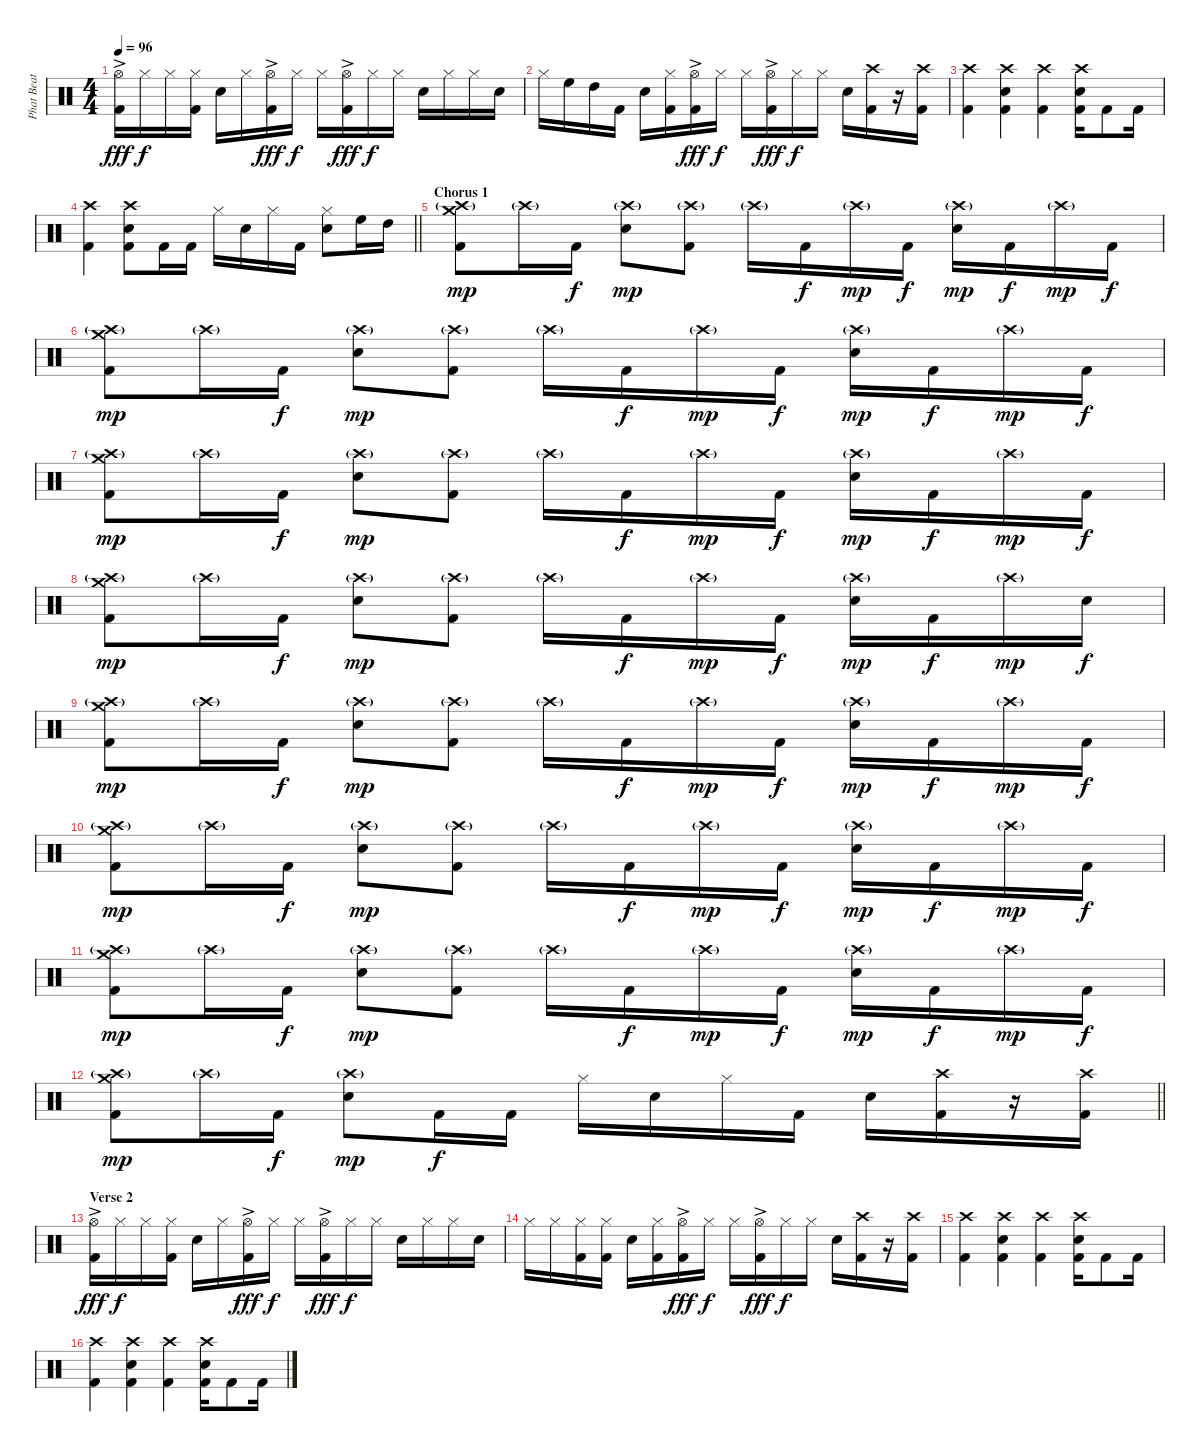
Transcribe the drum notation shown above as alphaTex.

\track ("Phat Beat" "Phat Beat") {instrument percussion}
\staff {score}
\articulation defaults
\ts (4 4)
\tempo 96
\clef neutral
\ks c
("Hi-Hat (open)"{ac} "Kick (hit) 2").16{dy fff} "Hi-Hat (closed)".16{dy f} "Hi-Hat (closed)".16 ("Hi-Hat (closed)" "Kick (hit) 2").16 "Snare (hit) 2".16 "Hi-Hat (closed)".16 ("Hi-Hat (open)"{ac} "Kick (hit) 2").16{dy fff} "Hi-Hat (closed)".16{dy f} "Hi-Hat (closed)".16 ("Hi-Hat (open)"{ac} "Kick (hit) 2").16{dy fff} "Hi-Hat (closed)".16{dy f} "Hi-Hat (closed)".16 "Snare (hit) 2".16 "Hi-Hat (closed)".16 "Hi-Hat (closed)".16 "Snare (hit) 2".16 |
"Hi-Hat (closed)".16 "High Floor Tom (hit)".16 "High Tom (hit)".16 "Kick (hit) 2".16 "Snare (hit) 2".16 ("Hi-Hat (closed)" "Kick (hit) 2").16 ("Hi-Hat (open)"{ac} "Kick (hit) 2").16{dy fff} "Hi-Hat (closed)".16{dy f} "Hi-Hat (closed)".16 ("Hi-Hat (open)"{ac} "Kick (hit) 2").16{dy fff} "Hi-Hat (closed)".16{dy f} "Hi-Hat (closed)".16 "Snare (hit) 2".16 ("Crash high (hit)" "Kick (hit) 2").16 r.16 ("Crash high (hit)" "Kick (hit) 2").16 |
("Crash high (hit)" "Kick (hit) 2").4 ("Crash high (hit)" "Snare (hit) 2" "Kick (hit) 2").4 ("Crash high (hit)" "Kick (hit) 2").4 ("Crash high (hit)" "Snare (hit) 2" "Kick (hit) 2").16 "Kick (hit) 2".8 "Kick (hit) 2".16 |
\barLineRight lightlight
("Crash high (hit)" "Kick (hit) 2").4 ("Crash high (hit)" "Snare (hit) 2" "Kick (hit) 2").8 "Kick (hit) 2".16 "Kick (hit) 2".16 "Hi-Hat (closed)".16 "Snare (hit) 2".16 "Hi-Hat (closed)".16 "Kick (hit) 2".16 ("Hi-Hat (closed)" "Snare (hit) 2").8 "High Floor Tom (hit)".16 "High Tom (hit)".16 |
\section ("" "Chorus 1")
("Crash high (hit)"{g} "Crash medium (hit)" "Kick (hit) 2").8{dy mp} "Crash high (hit)"{g}.16 "Kick (hit) 2".16{dy f} ("Crash high (hit)"{g} "Snare (hit) 2").8{dy mp} ("Crash high (hit)"{g} "Kick (hit) 2").8 "Crash high (hit)"{g}.16 "Kick (hit) 2".16{dy f} "Crash high (hit)"{g}.16{dy mp} "Kick (hit) 2".16{dy f} ("Crash high (hit)"{g} "Snare (hit) 2").16{dy mp} "Kick (hit) 2".16{dy f} "Crash high (hit)"{g}.16{dy mp} "Kick (hit) 2".16{dy f} |
("Crash high (hit)"{g} "Crash medium (hit)" "Kick (hit) 2").8{dy mp} "Crash high (hit)"{g}.16 "Kick (hit) 2".16{dy f} ("Crash high (hit)"{g} "Snare (hit) 2").8{dy mp} ("Crash high (hit)"{g} "Kick (hit) 2").8 "Crash high (hit)"{g}.16 "Kick (hit) 2".16{dy f} "Crash high (hit)"{g}.16{dy mp} "Kick (hit) 2".16{dy f} ("Crash high (hit)"{g} "Snare (hit) 2").16{dy mp} "Kick (hit) 2".16{dy f} "Crash high (hit)"{g}.16{dy mp} "Kick (hit) 2".16{dy f} |
("Crash high (hit)"{g} "Crash medium (hit)" "Kick (hit) 2").8{dy mp} "Crash high (hit)"{g}.16 "Kick (hit) 2".16{dy f} ("Crash high (hit)"{g} "Snare (hit) 2").8{dy mp} ("Crash high (hit)"{g} "Kick (hit) 2").8 "Crash high (hit)"{g}.16 "Kick (hit) 2".16{dy f} "Crash high (hit)"{g}.16{dy mp} "Kick (hit) 2".16{dy f} ("Crash high (hit)"{g} "Snare (hit) 2").16{dy mp} "Kick (hit) 2".16{dy f} "Crash high (hit)"{g}.16{dy mp} "Kick (hit) 2".16{dy f} |
("Crash high (hit)"{g} "Crash medium (hit)" "Kick (hit) 2").8{dy mp} "Crash high (hit)"{g}.16 "Kick (hit) 2".16{dy f} ("Crash high (hit)"{g} "Snare (hit) 2").8{dy mp} ("Crash high (hit)"{g} "Kick (hit) 2").8 "Crash high (hit)"{g}.16 "Kick (hit) 2".16{dy f} "Crash high (hit)"{g}.16{dy mp} "Kick (hit) 2".16{dy f} ("Crash high (hit)"{g} "Snare (hit) 2").16{dy mp} "Kick (hit) 2".16{dy f} "Crash high (hit)"{g}.16{dy mp} "Snare (hit) 2".16{dy f} |
("Crash high (hit)"{g} "Crash medium (hit)" "Kick (hit) 2").8{dy mp} "Crash high (hit)"{g}.16 "Kick (hit) 2".16{dy f} ("Crash high (hit)"{g} "Snare (hit) 2").8{dy mp} ("Crash high (hit)"{g} "Kick (hit) 2").8 "Crash high (hit)"{g}.16 "Kick (hit) 2".16{dy f} "Crash high (hit)"{g}.16{dy mp} "Kick (hit) 2".16{dy f} ("Crash high (hit)"{g} "Snare (hit) 2").16{dy mp} "Kick (hit) 2".16{dy f} "Crash high (hit)"{g}.16{dy mp} "Kick (hit) 2".16{dy f} |
("Crash high (hit)"{g} "Crash medium (hit)" "Kick (hit) 2").8{dy mp} "Crash high (hit)"{g}.16 "Kick (hit) 2".16{dy f} ("Crash high (hit)"{g} "Snare (hit) 2").8{dy mp} ("Crash high (hit)"{g} "Kick (hit) 2").8 "Crash high (hit)"{g}.16 "Kick (hit) 2".16{dy f} "Crash high (hit)"{g}.16{dy mp} "Kick (hit) 2".16{dy f} ("Crash high (hit)"{g} "Snare (hit) 2").16{dy mp} "Kick (hit) 2".16{dy f} "Crash high (hit)"{g}.16{dy mp} "Kick (hit) 2".16{dy f} |
("Crash high (hit)"{g} "Crash medium (hit)" "Kick (hit) 2").8{dy mp} "Crash high (hit)"{g}.16 "Kick (hit) 2".16{dy f} ("Crash high (hit)"{g} "Snare (hit) 2").8{dy mp} ("Crash high (hit)"{g} "Kick (hit) 2").8 "Crash high (hit)"{g}.16 "Kick (hit) 2".16{dy f} "Crash high (hit)"{g}.16{dy mp} "Kick (hit) 2".16{dy f} ("Crash high (hit)"{g} "Snare (hit) 2").16{dy mp} "Kick (hit) 2".16{dy f} "Crash high (hit)"{g}.16{dy mp} "Kick (hit) 2".16{dy f} |
\barLineRight lightlight
("Crash high (hit)"{g} "Crash medium (hit)" "Kick (hit) 2").8{dy mp} "Crash high (hit)"{g}.16 "Kick (hit) 2".16{dy f} ("Crash high (hit)"{g} "Snare (hit) 2").8{dy mp} "Kick (hit) 2".16{dy f} "Kick (hit) 2".16 "Hi-Hat (closed)".16 "Snare (hit) 2".16 "Hi-Hat (closed)".16 "Kick (hit) 2".16 "Snare (hit) 2".16 ("Crash high (hit)" "Kick (hit) 2").16 r.16 ("Crash high (hit)" "Kick (hit) 2").16 |
\section ("" "Verse 2")
("Hi-Hat (open)"{ac} "Kick (hit) 2").16{dy fff} "Hi-Hat (closed)".16{dy f} "Hi-Hat (closed)".16 ("Hi-Hat (closed)" "Kick (hit) 2").16 "Snare (hit) 2".16 "Hi-Hat (closed)".16 ("Hi-Hat (open)"{ac} "Kick (hit) 2").16{dy fff} "Hi-Hat (closed)".16{dy f} "Hi-Hat (closed)".16 ("Hi-Hat (open)"{ac} "Kick (hit) 2").16{dy fff} "Hi-Hat (closed)".16{dy f} "Hi-Hat (closed)".16 "Snare (hit) 2".16 "Hi-Hat (closed)".16 "Hi-Hat (closed)".16 "Snare (hit) 2".16 |
"Hi-Hat (closed)".16 "Hi-Hat (closed)".16 ("Hi-Hat (closed)" "Kick (hit) 2").16 ("Hi-Hat (closed)" "Kick (hit) 2").16 "Snare (hit) 2".16 ("Hi-Hat (closed)" "Kick (hit) 2").16 ("Hi-Hat (open)"{ac} "Kick (hit) 2").16{dy fff} "Hi-Hat (closed)".16{dy f} "Hi-Hat (closed)".16 ("Hi-Hat (open)"{ac} "Kick (hit) 2").16{dy fff} "Hi-Hat (closed)".16{dy f} "Hi-Hat (closed)".16 "Snare (hit) 2".16 ("Crash high (hit)" "Kick (hit) 2").16 r.16 ("Crash high (hit)" "Kick (hit) 2").16 |
("Crash high (hit)" "Kick (hit) 2").4 ("Crash high (hit)" "Snare (hit) 2" "Kick (hit) 2").4 ("Crash high (hit)" "Kick (hit) 2").4 ("Crash high (hit)" "Snare (hit) 2" "Kick (hit) 2").16 "Kick (hit) 2".8 "Kick (hit) 2".16 |
("Crash high (hit)" "Kick (hit) 2").4 ("Crash high (hit)" "Snare (hit) 2" "Kick (hit) 2").4 ("Crash high (hit)" "Kick (hit) 2").4 ("Crash high (hit)" "Snare (hit) 2" "Kick (hit) 2").16 "Kick (hit) 2".8 "Kick (hit) 2".16
